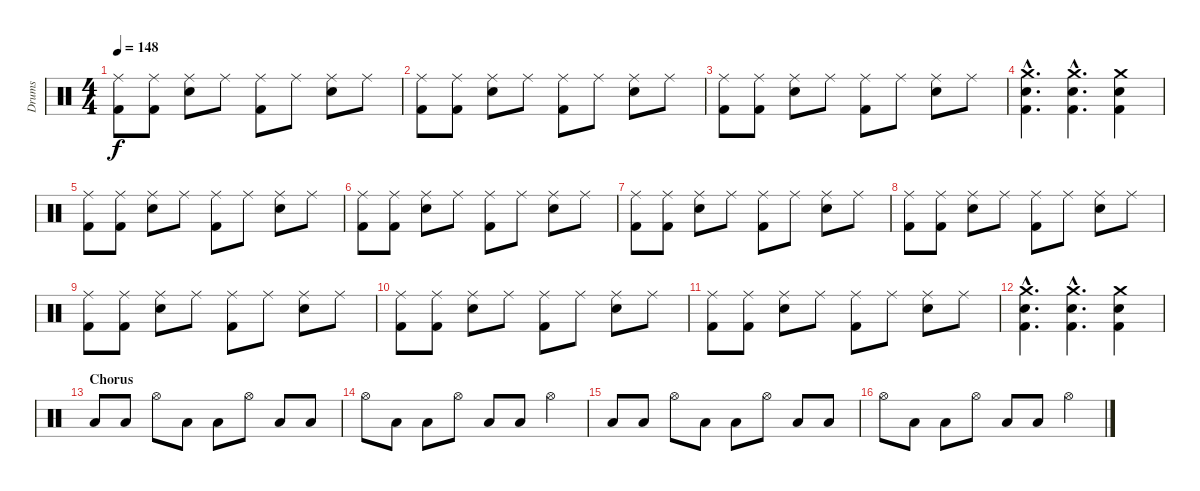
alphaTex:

\track ("Drums" "Drums") {instrument percussion}
\staff {score}
\articulation defaults
\ts (4 4)
\tempo 148
\clef neutral
\ks c
("Ride (middle)" "Kick (hit) 2").8{dy f} ("Ride (middle)" "Kick (hit) 2").8 ("Ride (middle)" "Snare (hit) 2").8 "Ride (middle)".8 ("Ride (middle)" "Kick (hit) 2").8 "Ride (middle)".8 ("Ride (middle)" "Snare (hit) 2").8 "Ride (middle)".8 |
("Ride (middle)" "Kick (hit) 2").8 ("Ride (middle)" "Kick (hit) 2").8 ("Ride (middle)" "Snare (hit) 2").8 "Ride (middle)".8 ("Ride (middle)" "Kick (hit) 2").8 "Ride (middle)".8 ("Ride (middle)" "Snare (hit) 2").8 "Ride (middle)".8 |
("Ride (middle)" "Kick (hit) 2").8 ("Ride (middle)" "Kick (hit) 2").8 ("Ride (middle)" "Snare (hit) 2").8 "Ride (middle)".8 ("Ride (middle)" "Kick (hit) 2").8 "Ride (middle)".8 ("Ride (middle)" "Snare (hit) 2").8 "Ride (middle)".8 |
("Crash medium (hit)"{hac} "Snare (hit) 2"{hac} "Kick (hit) 2"{hac}).4{d} ("Crash medium (hit)"{hac} "Snare (hit) 2"{hac} "Kick (hit) 2"{hac}).4{d} ("Crash medium (hit)" "Snare (hit) 2" "Kick (hit) 2").4 |
("Ride (middle)" "Kick (hit) 2").8 ("Ride (middle)" "Kick (hit) 2").8 ("Ride (middle)" "Snare (hit) 2").8 "Ride (middle)".8 ("Ride (middle)" "Kick (hit) 2").8 "Ride (middle)".8 ("Ride (middle)" "Snare (hit) 2").8 "Ride (middle)".8 |
("Ride (middle)" "Kick (hit) 2").8 ("Ride (middle)" "Kick (hit) 2").8 ("Ride (middle)" "Snare (hit) 2").8 "Ride (middle)".8 ("Ride (middle)" "Kick (hit) 2").8 "Ride (middle)".8 ("Ride (middle)" "Snare (hit) 2").8 "Ride (middle)".8 |
("Ride (middle)" "Kick (hit) 2").8 ("Ride (middle)" "Kick (hit) 2").8 ("Ride (middle)" "Snare (hit) 2").8 "Ride (middle)".8 ("Ride (middle)" "Kick (hit) 2").8 "Ride (middle)".8 ("Ride (middle)" "Snare (hit) 2").8 "Ride (middle)".8 |
("Ride (middle)" "Kick (hit) 2").8 ("Ride (middle)" "Kick (hit) 2").8 ("Ride (middle)" "Snare (hit) 2").8 "Ride (middle)".8 ("Ride (middle)" "Kick (hit) 2").8 "Ride (middle)".8 ("Ride (middle)" "Snare (hit) 2").8 "Ride (middle)".8 |
("Ride (middle)" "Kick (hit) 2").8 ("Ride (middle)" "Kick (hit) 2").8 ("Ride (middle)" "Snare (hit) 2").8 "Ride (middle)".8 ("Ride (middle)" "Kick (hit) 2").8 "Ride (middle)".8 ("Ride (middle)" "Snare (hit) 2").8 "Ride (middle)".8 |
("Ride (middle)" "Kick (hit) 2").8 ("Ride (middle)" "Kick (hit) 2").8 ("Ride (middle)" "Snare (hit) 2").8 "Ride (middle)".8 ("Ride (middle)" "Kick (hit) 2").8 "Ride (middle)".8 ("Ride (middle)" "Snare (hit) 2").8 "Ride (middle)".8 |
("Ride (middle)" "Kick (hit) 2").8 ("Ride (middle)" "Kick (hit) 2").8 ("Ride (middle)" "Snare (hit) 2").8 "Ride (middle)".8 ("Ride (middle)" "Kick (hit) 2").8 "Ride (middle)".8 ("Ride (middle)" "Snare (hit) 2").8 "Ride (middle)".8 |
("Crash medium (hit)"{hac} "Snare (hit) 2"{hac} "Kick (hit) 2"{hac}).4{d} ("Crash medium (hit)"{hac} "Snare (hit) 2"{hac} "Kick (hit) 2"{hac}).4{d} ("Crash medium (hit)" "Snare (hit) 2" "Kick (hit) 2").4 |
\section ("" "Chorus")
"Low Floor Tom (hit)".8 "Low Floor Tom (hit)".8 "Hi-Hat (open)".8 "Low Floor Tom (hit)".8 "Low Floor Tom (hit)".8 "Hi-Hat (open)".8 "Low Floor Tom (hit)".8 "Low Floor Tom (hit)".8 |
"Hi-Hat (open)".8 "Low Floor Tom (hit)".8 "Low Floor Tom (hit)".8 "Hi-Hat (open)".8 "Low Floor Tom (hit)".8 "Low Floor Tom (hit)".8 "Hi-Hat (open)".4 |
"Low Floor Tom (hit)".8 "Low Floor Tom (hit)".8 "Hi-Hat (open)".8 "Low Floor Tom (hit)".8 "Low Floor Tom (hit)".8 "Hi-Hat (open)".8 "Low Floor Tom (hit)".8 "Low Floor Tom (hit)".8 |
"Hi-Hat (open)".8 "Low Floor Tom (hit)".8 "Low Floor Tom (hit)".8 "Hi-Hat (open)".8 "Low Floor Tom (hit)".8 "Low Floor Tom (hit)".8 "Hi-Hat (open)".4
